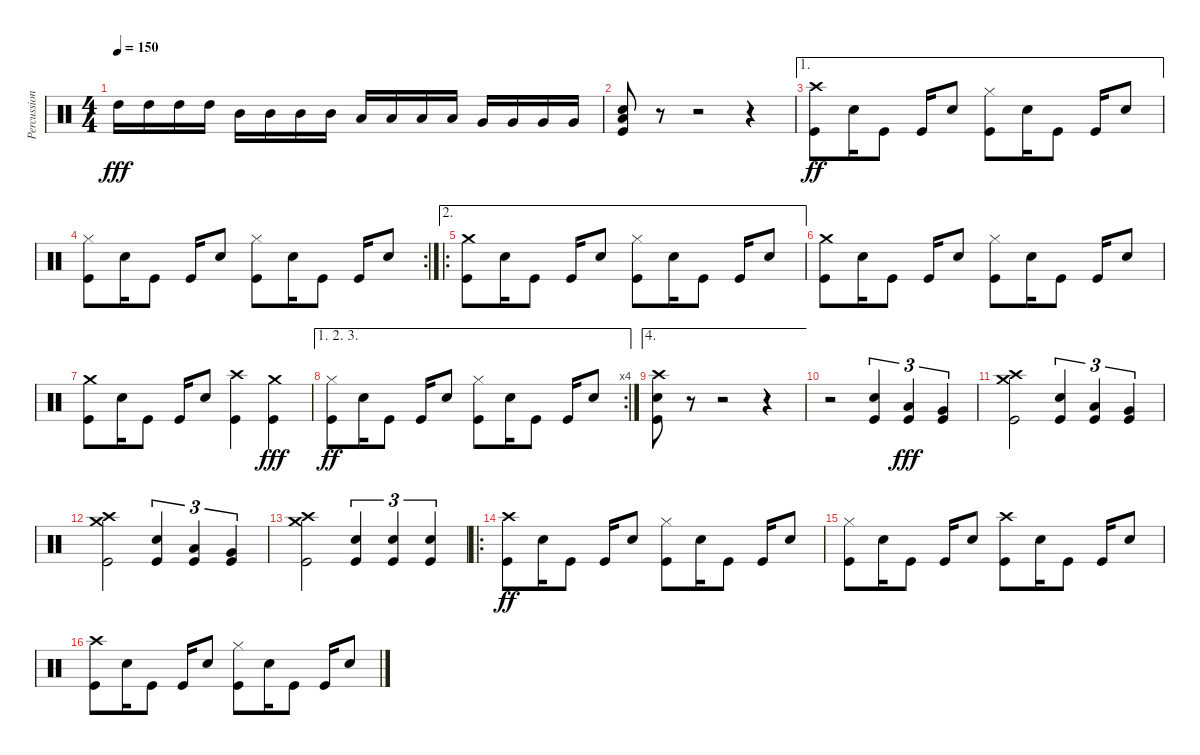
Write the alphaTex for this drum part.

\track ("Percussions" "Percussion") {instrument percussion}
\staff {score}
\articulation defaults
\ts (4 4)
\tempo 150
\clef neutral
\ks c "High Tom (hit)".16{dy fff} "High Tom (hit)".16 "High Tom (hit)".16 "High Tom (hit)".16 "Mid Tom (hit)".16 "Mid Tom (hit)".16 "Mid Tom (hit)".16 "Mid Tom (hit)".16 "Low Tom (hit)".16 "Low Tom (hit)".16 "Low Tom (hit)".16 "Low Tom (hit)".16 "Very Low Tom (hit)".16 "Very Low Tom (hit)".16 "Very Low Tom (hit)".16 "Very Low Tom (hit)".16
|
("Low Floor Tom (hit)" "Snare (hit) 2" "Kick (hit)").8 r.8 r.2 r.4 |
\ae 1
("Crash high (hit)" "Kick (hit)").8{dy ff} "Snare (hit) 2".16 "Kick (hit)".8 "Kick (hit)".16 "Snare (hit) 2".8 ("Hi-Hat (closed)" "Kick (hit)").8 "Snare (hit) 2".16 "Kick (hit)".8 "Kick (hit)".16 "Snare (hit) 2".8 |
\rc 2
("Hi-Hat (closed)" "Kick (hit)").8 "Snare (hit) 2".16 "Kick (hit)".8 "Kick (hit)".16 "Snare (hit) 2".8 ("Hi-Hat (closed)" "Kick (hit)").8 "Snare (hit) 2".16 "Kick (hit)".8 "Kick (hit)".16 "Snare (hit) 2".8 |
\ae 2
\ro
("Crash medium (hit)" "Kick (hit)").8 "Snare (hit) 2".16 "Kick (hit)".8 "Kick (hit)".16 "Snare (hit) 2".8 ("Hi-Hat (closed)" "Kick (hit)").8 "Snare (hit) 2".16 "Kick (hit)".8 "Kick (hit)".16 "Snare (hit) 2".8 |
("Crash medium (hit)" "Kick (hit)").8 "Snare (hit) 2".16 "Kick (hit)".8 "Kick (hit)".16 "Snare (hit) 2".8 ("Hi-Hat (closed)" "Kick (hit)").8 "Snare (hit) 2".16 "Kick (hit)".8 "Kick (hit)".16 "Snare (hit) 2".8 |
("Crash medium (hit)" "Kick (hit)").8 "Snare (hit) 2".16 "Kick (hit)".8 "Kick (hit)".16 "Snare (hit) 2".8 ("Crash high (hit)" "Kick (hit)").4 ("Crash medium (hit)" "Kick (hit)").4{dy fff} |
\ae (1 2 3)
\rc 4
("Hi-Hat (closed)" "Kick (hit)").8{dy ff} "Snare (hit) 2".16 "Kick (hit)".8 "Kick (hit)".16 "Snare (hit) 2".8 ("Hi-Hat (closed)" "Kick (hit)").8 "Snare (hit) 2".16 "Kick (hit)".8 "Kick (hit)".16 "Snare (hit) 2".8 |
\ae 4
("Crash high (hit)" "Snare (hit) 2" "Kick (hit)").8 r.8 r.2 r.4 |
r.2 ("Snare (hit) 2" "Kick (hit)").4{tu (3 2)} ("Low Tom (hit)" "Kick (hit)").4{tu (3 2) dy fff} ("Very Low Tom (hit)" "Kick (hit)").4{tu (3 2)} |
("Crash medium (hit)" "Crash high (hit)" "Kick (hit)").2 ("Snare (hit) 2" "Kick (hit)").4{tu (3 2)} ("Low Tom (hit)" "Kick (hit)").4{tu (3 2)} ("Very Low Tom (hit)" "Kick (hit)").4{tu (3 2)} |
("Crash medium (hit)" "Crash high (hit)" "Kick (hit)").2 ("Snare (hit) 2" "Kick (hit)").4{tu (3 2)} ("Low Tom (hit)" "Kick (hit)").4{tu (3 2)} ("Very Low Tom (hit)" "Kick (hit)").4{tu (3 2)} |
("Crash medium (hit)" "Crash high (hit)" "Kick (hit)").2 ("Snare (hit) 2" "Kick (hit)").4{tu (3 2)} ("Snare (hit) 2" "Kick (hit)").4{tu (3 2)} ("Snare (hit) 2" "Kick (hit)").4{tu (3 2)} |
\ro
("Crash high (hit)" "Kick (hit)").8{dy ff} "Snare (hit) 2".16 "Kick (hit)".8 "Kick (hit)".16 "Snare (hit) 2".8 ("Hi-Hat (closed)" "Kick (hit)").8 "Snare (hit) 2".16 "Kick (hit)".8 "Kick (hit)".16 "Snare (hit) 2".8 |
("Hi-Hat (closed)" "Kick (hit)").8 "Snare (hit) 2".16 "Kick (hit)".8 "Kick (hit)".16 "Snare (hit) 2".8 ("Crash high (hit)" "Kick (hit)").8 "Snare (hit) 2".16 "Kick (hit)".8 "Kick (hit)".16 "Snare (hit) 2".8 |
("Crash high (hit)" "Kick (hit)").8 "Snare (hit) 2".16 "Kick (hit)".8 "Kick (hit)".16 "Snare (hit) 2".8 ("Hi-Hat (closed)" "Kick (hit)").8 "Snare (hit) 2".16 "Kick (hit)".8 "Kick (hit)".16 "Snare (hit) 2".8
